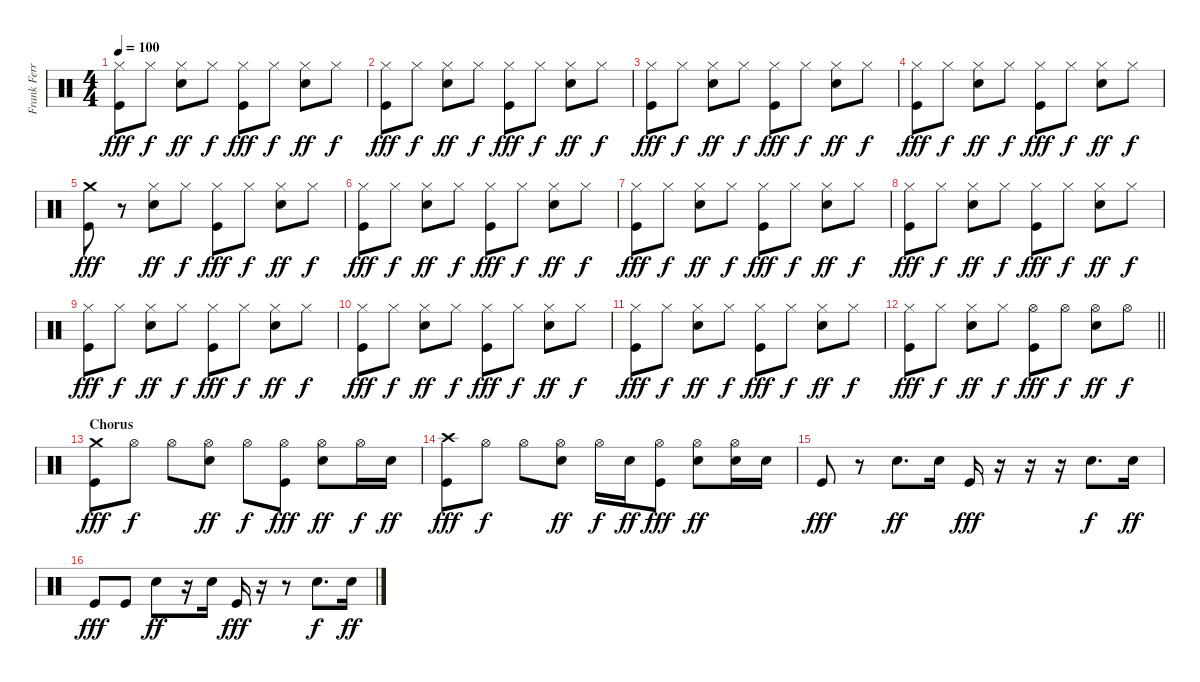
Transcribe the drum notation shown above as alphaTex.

\track ("Frank Ferrer" "Frank Ferr") {instrument percussion}
\staff {score}
\articulation defaults
\ts (4 4)
\tempo 100
\clef neutral
\ks c
("Kick (hit)" "Hi-Hat (closed)").8{dy fff} "Hi-Hat (closed)".8{dy f} ("Snare (hit) 2" "Hi-Hat (closed)").8{dy ff} "Hi-Hat (closed)".8{dy f} ("Kick (hit)" "Hi-Hat (closed)").8{dy fff} "Hi-Hat (closed)".8{dy f} ("Snare (hit) 2" "Hi-Hat (closed)").8{dy ff} "Hi-Hat (closed)".8{dy f} |
("Kick (hit)" "Hi-Hat (closed)").8{dy fff} "Hi-Hat (closed)".8{dy f} ("Snare (hit) 2" "Hi-Hat (closed)").8{dy ff} "Hi-Hat (closed)".8{dy f} ("Kick (hit)" "Hi-Hat (closed)").8{dy fff} "Hi-Hat (closed)".8{dy f} ("Snare (hit) 2" "Hi-Hat (closed)").8{dy ff} "Hi-Hat (closed)".8{dy f} |
("Kick (hit)" "Hi-Hat (closed)").8{dy fff} "Hi-Hat (closed)".8{dy f} ("Snare (hit) 2" "Hi-Hat (closed)").8{dy ff} "Hi-Hat (closed)".8{dy f} ("Kick (hit)" "Hi-Hat (closed)").8{dy fff} "Hi-Hat (closed)".8{dy f} ("Snare (hit) 2" "Hi-Hat (closed)").8{dy ff} "Hi-Hat (closed)".8{dy f} |
("Kick (hit)" "Hi-Hat (closed)").8{dy fff} "Hi-Hat (closed)".8{dy f} ("Snare (hit) 2" "Hi-Hat (closed)").8{dy ff} "Hi-Hat (closed)".8{dy f} ("Kick (hit)" "Hi-Hat (closed)").8{dy fff} "Hi-Hat (closed)".8{dy f} ("Snare (hit) 2" "Hi-Hat (closed)").8{dy ff} "Hi-Hat (closed)".8{dy f} |
("Kick (hit)" "Crash medium (hit)").8{dy fff} r.8 ("Snare (hit) 2" "Hi-Hat (closed)").8{dy ff} "Hi-Hat (closed)".8{dy f} ("Kick (hit)" "Hi-Hat (closed)").8{dy fff} "Hi-Hat (closed)".8{dy f} ("Snare (hit) 2" "Hi-Hat (closed)").8{dy ff} "Hi-Hat (closed)".8{dy f} |
("Kick (hit)" "Hi-Hat (closed)").8{dy fff} "Hi-Hat (closed)".8{dy f} ("Snare (hit) 2" "Hi-Hat (closed)").8{dy ff} "Hi-Hat (closed)".8{dy f} ("Kick (hit)" "Hi-Hat (closed)").8{dy fff} "Hi-Hat (closed)".8{dy f} ("Snare (hit) 2" "Hi-Hat (closed)").8{dy ff} "Hi-Hat (closed)".8{dy f} |
("Kick (hit)" "Hi-Hat (closed)").8{dy fff} "Hi-Hat (closed)".8{dy f} ("Snare (hit) 2" "Hi-Hat (closed)").8{dy ff} "Hi-Hat (closed)".8{dy f} ("Kick (hit)" "Hi-Hat (closed)").8{dy fff} "Hi-Hat (closed)".8{dy f} ("Snare (hit) 2" "Hi-Hat (closed)").8{dy ff} "Hi-Hat (closed)".8{dy f} |
("Kick (hit)" "Hi-Hat (closed)").8{dy fff} "Hi-Hat (closed)".8{dy f} ("Snare (hit) 2" "Hi-Hat (closed)").8{dy ff} "Hi-Hat (closed)".8{dy f} ("Kick (hit)" "Hi-Hat (closed)").8{dy fff} "Hi-Hat (closed)".8{dy f} ("Snare (hit) 2" "Hi-Hat (closed)").8{dy ff} "Hi-Hat (closed)".8{dy f} |
("Kick (hit)" "Hi-Hat (closed)").8{dy fff} "Hi-Hat (closed)".8{dy f} ("Snare (hit) 2" "Hi-Hat (closed)").8{dy ff} "Hi-Hat (closed)".8{dy f} ("Kick (hit)" "Hi-Hat (closed)").8{dy fff} "Hi-Hat (closed)".8{dy f} ("Snare (hit) 2" "Hi-Hat (closed)").8{dy ff} "Hi-Hat (closed)".8{dy f} |
("Kick (hit)" "Hi-Hat (closed)").8{dy fff} "Hi-Hat (closed)".8{dy f} ("Snare (hit) 2" "Hi-Hat (closed)").8{dy ff} "Hi-Hat (closed)".8{dy f} ("Kick (hit)" "Hi-Hat (closed)").8{dy fff} "Hi-Hat (closed)".8{dy f} ("Snare (hit) 2" "Hi-Hat (closed)").8{dy ff} "Hi-Hat (closed)".8{dy f} |
("Kick (hit)" "Hi-Hat (closed)").8{dy fff} "Hi-Hat (closed)".8{dy f} ("Snare (hit) 2" "Hi-Hat (closed)").8{dy ff} "Hi-Hat (closed)".8{dy f} ("Kick (hit)" "Hi-Hat (closed)").8{dy fff} "Hi-Hat (closed)".8{dy f} ("Snare (hit) 2" "Hi-Hat (closed)").8{dy ff} "Hi-Hat (closed)".8{dy f} |
\barLineRight lightlight
("Kick (hit)" "Hi-Hat (closed)").8{dy fff} "Hi-Hat (closed)".8{dy f} ("Snare (hit) 2" "Hi-Hat (closed)").8{dy ff} "Hi-Hat (closed)".8{dy f} ("Kick (hit)" "Hi-Hat (open)").8{dy fff} "Hi-Hat (open)".8{dy f} ("Snare (hit) 2" "Hi-Hat (open)").8{dy ff} "Hi-Hat (open)".8{dy f} |
\section ("" "Chorus")
("Kick (hit)" "Crash medium (hit)").8{dy fff} "Hi-Hat (open)".8{dy f} "Hi-Hat (open)".8 ("Snare (hit) 2" "Hi-Hat (open)").8{dy ff} "Hi-Hat (open)".8{dy f} ("Kick (hit)" "Hi-Hat (open)").8{dy fff} ("Snare (hit) 2" "Hi-Hat (open)").8{dy ff} "Hi-Hat (open)".16{dy f} "Snare (hit) 2".16{dy ff} |
("Kick (hit)" "Crash high (hit)").8{dy fff} "Hi-Hat (open)".8{dy f} "Hi-Hat (open)".8 ("Snare (hit) 2" "Hi-Hat (open)").8{dy ff} "Hi-Hat (open)".16{dy f} "Snare (hit) 2".16{dy ff} ("Kick (hit)" "Hi-Hat (open)").8{dy fff} ("Snare (hit) 2" "Hi-Hat (open)").8{dy ff} ("Snare (hit) 2" "Hi-Hat (open)").16 "Snare (hit) 2".16 |
"Kick (hit)".8{dy fff} r.8 "Snare (hit) 2".8{d dy ff} "Snare (hit) 2".16 "Kick (hit)".16{dy fff} r.16 r.16 r.16 "Snare (hit) 2".8{d dy f} "Snare (hit) 2".16{dy ff} |
"Kick (hit)".8{dy fff} "Kick (hit)".8 "Snare (hit) 2".8{dy ff} r.16 "Snare (hit) 2".16 "Kick (hit)".16{dy fff} r.16 r.8 "Snare (hit) 2".8{d dy f} "Snare (hit) 2".16{dy ff}
